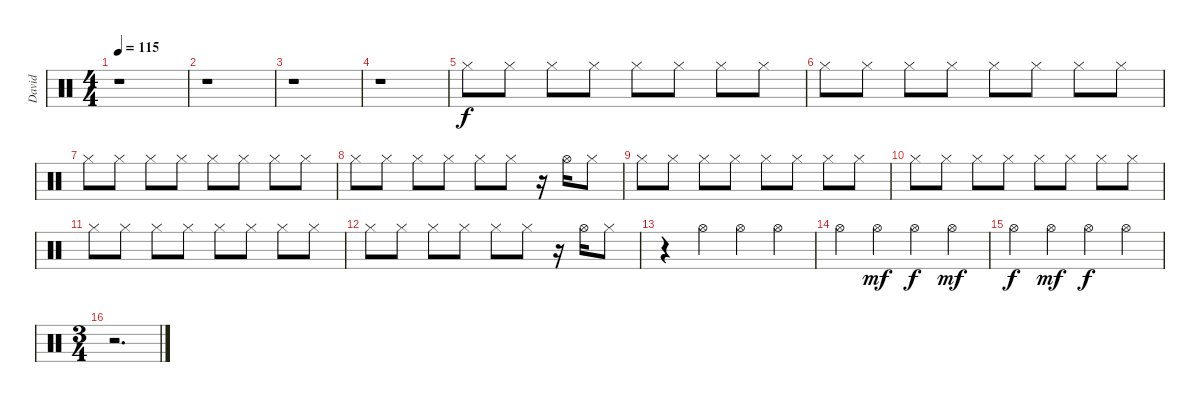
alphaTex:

\track ("David" "David") {instrument percussion}
\staff {score}
\articulation defaults
\ts (4 4)
\tempo 115
\clef neutral
\ks c
r.1{dy f} |
r.1 |
r.1 |
r.1 |
"Hi-Hat (closed)".8 "Hi-Hat (closed)".8 "Hi-Hat (closed)".8 "Hi-Hat (closed)".8 "Hi-Hat (closed)".8 "Hi-Hat (closed)".8 "Hi-Hat (closed)".8 "Hi-Hat (closed)".8 |
"Hi-Hat (closed)".8 "Hi-Hat (closed)".8 "Hi-Hat (closed)".8 "Hi-Hat (closed)".8 "Hi-Hat (closed)".8 "Hi-Hat (closed)".8 "Hi-Hat (closed)".8 "Hi-Hat (closed)".8 |
"Hi-Hat (closed)".8 "Hi-Hat (closed)".8 "Hi-Hat (closed)".8 "Hi-Hat (closed)".8 "Hi-Hat (closed)".8 "Hi-Hat (closed)".8 "Hi-Hat (closed)".8 "Hi-Hat (closed)".8 |
"Hi-Hat (closed)".8 "Hi-Hat (closed)".8 "Hi-Hat (closed)".8 "Hi-Hat (closed)".8 "Hi-Hat (closed)".8 "Hi-Hat (closed)".8 r.16 "Hi-Hat (open)".16 "Hi-Hat (closed)".8 |
"Hi-Hat (closed)".8 "Hi-Hat (closed)".8 "Hi-Hat (closed)".8 "Hi-Hat (closed)".8 "Hi-Hat (closed)".8 "Hi-Hat (closed)".8 "Hi-Hat (closed)".8 "Hi-Hat (closed)".8 |
"Hi-Hat (closed)".8 "Hi-Hat (closed)".8 "Hi-Hat (closed)".8 "Hi-Hat (closed)".8 "Hi-Hat (closed)".8 "Hi-Hat (closed)".8 "Hi-Hat (closed)".8 "Hi-Hat (closed)".8 |
"Hi-Hat (closed)".8 "Hi-Hat (closed)".8 "Hi-Hat (closed)".8 "Hi-Hat (closed)".8 "Hi-Hat (closed)".8 "Hi-Hat (closed)".8 "Hi-Hat (closed)".8 "Hi-Hat (closed)".8 |
"Hi-Hat (closed)".8 "Hi-Hat (closed)".8 "Hi-Hat (closed)".8 "Hi-Hat (closed)".8 "Hi-Hat (closed)".8 "Hi-Hat (closed)".8 r.16 "Hi-Hat (open)".16 "Hi-Hat (closed)".8 |
r.4 "Hi-Hat (open)".4 "Hi-Hat (open)".4 "Hi-Hat (open)".4 |
"Hi-Hat (open)".4 "Hi-Hat (open)".4{dy mf} "Hi-Hat (open)".4{dy f} "Hi-Hat (open)".4{dy mf} |
"Hi-Hat (open)".4{dy f} "Hi-Hat (open)".4{dy mf} "Hi-Hat (open)".4{dy f} "Hi-Hat (open)".4 |
\ts (3 4)
r.2{d}
